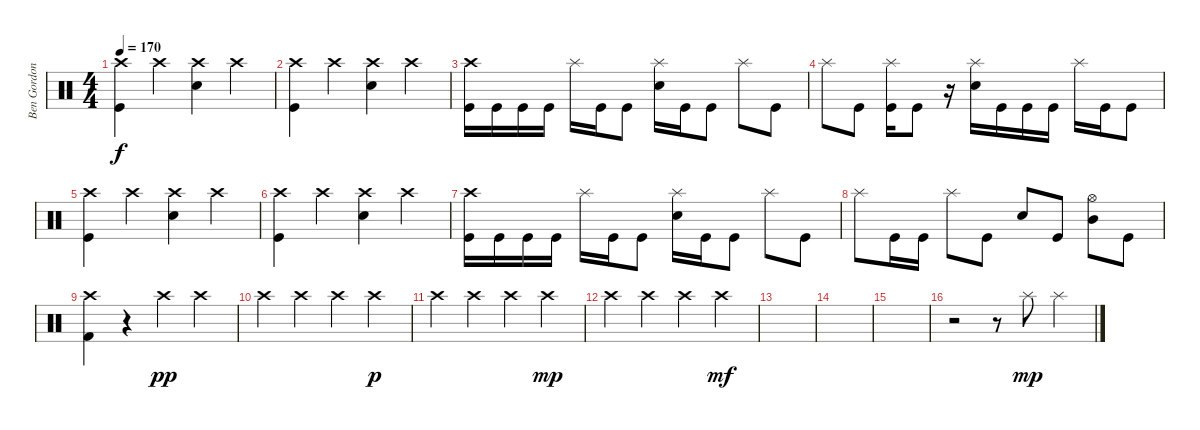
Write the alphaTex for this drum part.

\track ("Ben Gordon" "Ben Gordon") {instrument percussion}
\staff {score}
\articulation defaults
\ts (4 4)
\tempo 170
\clef neutral
\ks c
("Crash high (hit)" "Kick (hit)").4{dy f} "Crash high (hit)".4 ("Crash high (hit)" "Electric Snare (hit)").4 "Crash high (hit)".4 |
("Crash high (hit)" "Kick (hit)").4 "Crash high (hit)".4 ("Crash high (hit)" "Electric Snare (hit)").4 "Crash high (hit)".4 |
("Crash high (hit)" "Kick (hit)").16 "Kick (hit)".16 "Kick (hit)".16 "Kick (hit)".16 "Splash (hit)".16 "Kick (hit)".16 "Kick (hit)".8 ("Splash (hit)" "Electric Snare (hit)").16 "Kick (hit)".16 "Kick (hit)".8 "Splash (hit)".8 "Kick (hit)".8 |
"Splash (hit)".8 "Kick (hit)".8 ("Splash (hit)" "Kick (hit)").16 "Kick (hit)".8 r.16 ("Splash (hit)" "Electric Snare (hit)").16 "Kick (hit)".16 "Kick (hit)".16 "Kick (hit)".16 "Splash (hit)".16 "Kick (hit)".16 "Kick (hit)".8 |
("Crash high (hit)" "Kick (hit)").4 "Crash high (hit)".4 ("Crash high (hit)" "Electric Snare (hit)").4 "Crash high (hit)".4 |
("Crash high (hit)" "Kick (hit)").4 "Crash high (hit)".4 ("Crash high (hit)" "Electric Snare (hit)").4 "Crash high (hit)".4 |
("Crash high (hit)" "Kick (hit)").16 "Kick (hit)".16 "Kick (hit)".16 "Kick (hit)".16 "Splash (hit)".16 "Kick (hit)".16 "Kick (hit)".8 ("Splash (hit)" "Electric Snare (hit)").16 "Kick (hit)".16 "Kick (hit)".8 "Splash (hit)".8 "Kick (hit)".8 |
"Splash (hit)".8 "Kick (hit)".16 "Kick (hit)".16 "Splash (hit)".8 "Kick (hit)".8 "Electric Snare (hit)".8 "Kick (hit)".8 ("Hi-Hat (open)" "Mid Tom (hit)").8 "Kick (hit)".8 |
("Crash high (hit)" "Kick (hit) 2").4 r.4 "Crash high (hit)".4{dy pp} "Crash high (hit)".4 |
"Crash high (hit)".4 "Crash high (hit)".4 "Crash high (hit)".4 "Crash high (hit)".4{dy p} |
"Crash high (hit)".4 "Crash high (hit)".4 "Crash high (hit)".4 "Crash high (hit)".4{dy mp} |
"Crash high (hit)".4 "Crash high (hit)".4 "Crash high (hit)".4 "Crash high (hit)".4{dy mf} |
|
|
|
r.2 r.8 "Splash (hit)".8{dy mp} "Splash (hit)".4
